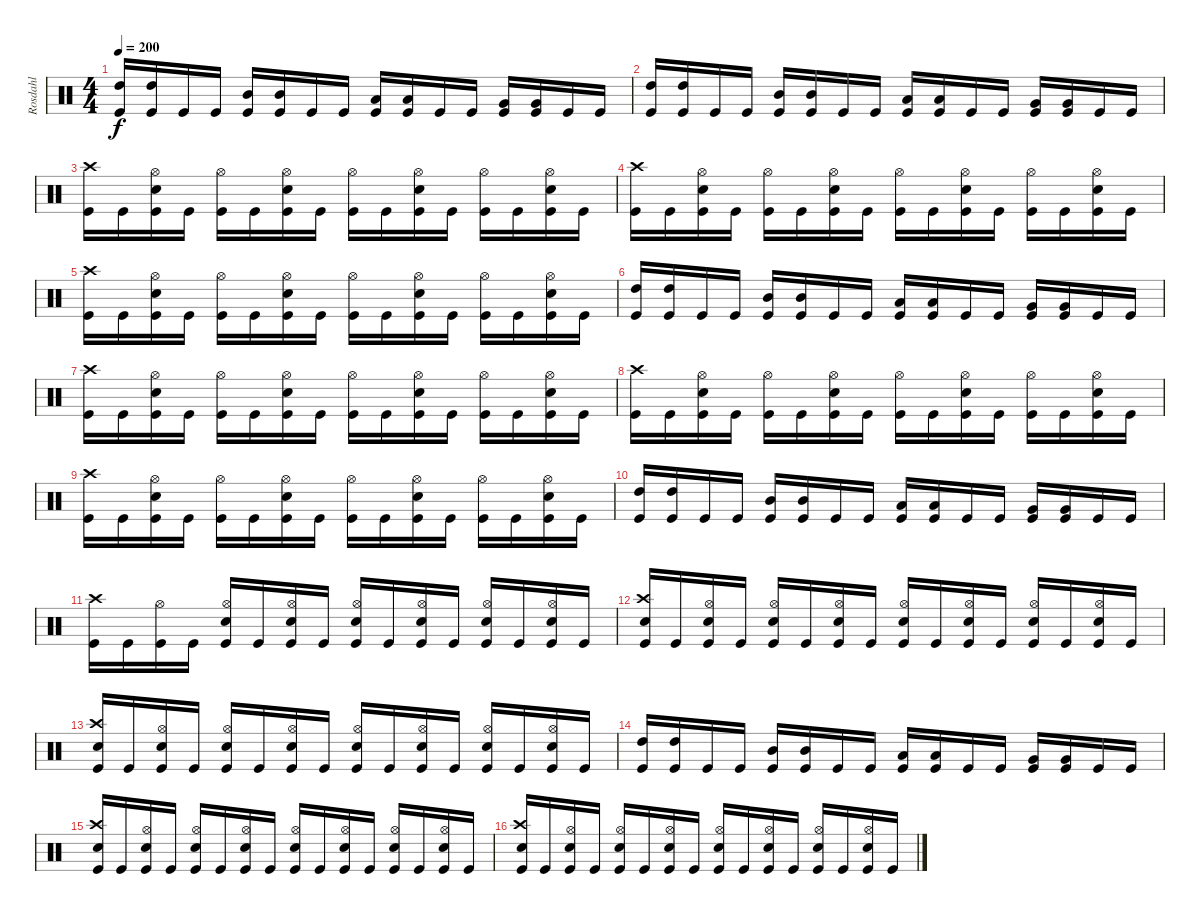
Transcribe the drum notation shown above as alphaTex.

\track ("Rosdahl" "Rosdahl") {instrument percussion}
\staff {score}
\articulation defaults
\ts (4 4)
\tempo 200
\clef neutral
\ks c
("High Tom (hit)" "Kick (hit)").16{dy f} ("High Tom (hit)" "Kick (hit)").16 "Kick (hit)".16 "Kick (hit)".16 ("Mid Tom (hit)" "Kick (hit)").16 ("Mid Tom (hit)" "Kick (hit)").16 "Kick (hit)".16 "Kick (hit)".16 ("Low Tom (hit)" "Kick (hit)").16 ("Low Tom (hit)" "Kick (hit)").16 "Kick (hit)".16 "Kick (hit)".16 ("Very Low Tom (hit)" "Kick (hit)").16 ("Very Low Tom (hit)" "Kick (hit)").16 "Kick (hit)".16 "Kick (hit)".16 |
("High Tom (hit)" "Kick (hit)").16 ("High Tom (hit)" "Kick (hit)").16 "Kick (hit)".16 "Kick (hit)".16 ("Mid Tom (hit)" "Kick (hit)").16 ("Mid Tom (hit)" "Kick (hit)").16 "Kick (hit)".16 "Kick (hit)".16 ("Low Tom (hit)" "Kick (hit)").16 ("Low Tom (hit)" "Kick (hit)").16 "Kick (hit)".16 "Kick (hit)".16 ("Very Low Tom (hit)" "Kick (hit)").16 ("Very Low Tom (hit)" "Kick (hit)").16 "Kick (hit)".16 "Kick (hit)".16 |
("Crash high (hit)" "Kick (hit)").16 "Kick (hit)".16 ("Hi-Hat (open)" "Electric Snare (hit)" "Kick (hit)").16 "Kick (hit)".16 ("Hi-Hat (open)" "Kick (hit)").16 "Kick (hit)".16 ("Hi-Hat (open)" "Electric Snare (hit)" "Kick (hit)").16 "Kick (hit)".16 ("Hi-Hat (open)" "Kick (hit)").16 "Kick (hit)".16 ("Hi-Hat (open)" "Electric Snare (hit)" "Kick (hit)").16 "Kick (hit)".16 ("Hi-Hat (open)" "Kick (hit)").16 "Kick (hit)".16 ("Hi-Hat (open)" "Electric Snare (hit)" "Kick (hit)").16 "Kick (hit)".16 |
("Crash high (hit)" "Kick (hit)").16 "Kick (hit)".16 ("Hi-Hat (open)" "Electric Snare (hit)" "Kick (hit)").16 "Kick (hit)".16 ("Hi-Hat (open)" "Kick (hit)").16 "Kick (hit)".16 ("Hi-Hat (open)" "Electric Snare (hit)" "Kick (hit)").16 "Kick (hit)".16 ("Hi-Hat (open)" "Kick (hit)").16 "Kick (hit)".16 ("Hi-Hat (open)" "Electric Snare (hit)" "Kick (hit)").16 "Kick (hit)".16 ("Hi-Hat (open)" "Kick (hit)").16 "Kick (hit)".16 ("Hi-Hat (open)" "Electric Snare (hit)" "Kick (hit)").16 "Kick (hit)".16 |
("Crash high (hit)" "Kick (hit)").16 "Kick (hit)".16 ("Hi-Hat (open)" "Electric Snare (hit)" "Kick (hit)").16 "Kick (hit)".16 ("Hi-Hat (open)" "Kick (hit)").16 "Kick (hit)".16 ("Hi-Hat (open)" "Electric Snare (hit)" "Kick (hit)").16 "Kick (hit)".16 ("Hi-Hat (open)" "Kick (hit)").16 "Kick (hit)".16 ("Hi-Hat (open)" "Electric Snare (hit)" "Kick (hit)").16 "Kick (hit)".16 ("Hi-Hat (open)" "Kick (hit)").16 "Kick (hit)".16 ("Hi-Hat (open)" "Electric Snare (hit)" "Kick (hit)").16 "Kick (hit)".16 |
("High Tom (hit)" "Kick (hit)").16 ("High Tom (hit)" "Kick (hit)").16 "Kick (hit)".16 "Kick (hit)".16 ("Mid Tom (hit)" "Kick (hit)").16 ("Mid Tom (hit)" "Kick (hit)").16 "Kick (hit)".16 "Kick (hit)".16 ("Low Tom (hit)" "Kick (hit)").16 ("Low Tom (hit)" "Kick (hit)").16 "Kick (hit)".16 "Kick (hit)".16 ("Very Low Tom (hit)" "Kick (hit)").16 ("Very Low Tom (hit)" "Kick (hit)").16 "Kick (hit)".16 "Kick (hit)".16 |
("Crash high (hit)" "Kick (hit)").16 "Kick (hit)".16 ("Hi-Hat (open)" "Electric Snare (hit)" "Kick (hit)").16 "Kick (hit)".16 ("Hi-Hat (open)" "Kick (hit)").16 "Kick (hit)".16 ("Hi-Hat (open)" "Electric Snare (hit)" "Kick (hit)").16 "Kick (hit)".16 ("Hi-Hat (open)" "Kick (hit)").16 "Kick (hit)".16 ("Hi-Hat (open)" "Electric Snare (hit)" "Kick (hit)").16 "Kick (hit)".16 ("Hi-Hat (open)" "Kick (hit)").16 "Kick (hit)".16 ("Hi-Hat (open)" "Electric Snare (hit)" "Kick (hit)").16 "Kick (hit)".16 |
("Crash high (hit)" "Kick (hit)").16 "Kick (hit)".16 ("Hi-Hat (open)" "Electric Snare (hit)" "Kick (hit)").16 "Kick (hit)".16 ("Hi-Hat (open)" "Kick (hit)").16 "Kick (hit)".16 ("Hi-Hat (open)" "Electric Snare (hit)" "Kick (hit)").16 "Kick (hit)".16 ("Hi-Hat (open)" "Kick (hit)").16 "Kick (hit)".16 ("Hi-Hat (open)" "Electric Snare (hit)" "Kick (hit)").16 "Kick (hit)".16 ("Hi-Hat (open)" "Kick (hit)").16 "Kick (hit)".16 ("Hi-Hat (open)" "Electric Snare (hit)" "Kick (hit)").16 "Kick (hit)".16 |
("Crash high (hit)" "Kick (hit)").16 "Kick (hit)".16 ("Hi-Hat (open)" "Electric Snare (hit)" "Kick (hit)").16 "Kick (hit)".16 ("Hi-Hat (open)" "Kick (hit)").16 "Kick (hit)".16 ("Hi-Hat (open)" "Electric Snare (hit)" "Kick (hit)").16 "Kick (hit)".16 ("Hi-Hat (open)" "Kick (hit)").16 "Kick (hit)".16 ("Hi-Hat (open)" "Electric Snare (hit)" "Kick (hit)").16 "Kick (hit)".16 ("Hi-Hat (open)" "Kick (hit)").16 "Kick (hit)".16 ("Hi-Hat (open)" "Electric Snare (hit)" "Kick (hit)").16 "Kick (hit)".16 |
("High Tom (hit)" "Kick (hit)").16 ("High Tom (hit)" "Kick (hit)").16 "Kick (hit)".16 "Kick (hit)".16 ("Mid Tom (hit)" "Kick (hit)").16 ("Mid Tom (hit)" "Kick (hit)").16 "Kick (hit)".16 "Kick (hit)".16 ("Low Tom (hit)" "Kick (hit)").16 ("Low Tom (hit)" "Kick (hit)").16 "Kick (hit)".16 "Kick (hit)".16 ("Very Low Tom (hit)" "Kick (hit)").16 ("Very Low Tom (hit)" "Kick (hit)").16 "Kick (hit)".16 "Kick (hit)".16 |
("Crash high (hit)" "Kick (hit)").16 "Kick (hit)".16 ("Hi-Hat (open)" "Kick (hit)").16 "Kick (hit)".16 ("Hi-Hat (open)" "Electric Snare (hit)" "Kick (hit)").16 "Kick (hit)".16 ("Hi-Hat (open)" "Electric Snare (hit)" "Kick (hit)").16 "Kick (hit)".16 ("Hi-Hat (open)" "Electric Snare (hit)" "Kick (hit)").16 "Kick (hit)".16 ("Hi-Hat (open)" "Electric Snare (hit)" "Kick (hit)").16 "Kick (hit)".16 ("Hi-Hat (open)" "Electric Snare (hit)" "Kick (hit)").16 "Kick (hit)".16 ("Hi-Hat (open)" "Electric Snare (hit)" "Kick (hit)").16 "Kick (hit)".16 |
("Crash high (hit)" "Electric Snare (hit)" "Kick (hit)").16 "Kick (hit)".16 ("Hi-Hat (open)" "Electric Snare (hit)" "Kick (hit)").16 "Kick (hit)".16 ("Hi-Hat (open)" "Electric Snare (hit)" "Kick (hit)").16 "Kick (hit)".16 ("Hi-Hat (open)" "Electric Snare (hit)" "Kick (hit)").16 "Kick (hit)".16 ("Hi-Hat (open)" "Electric Snare (hit)" "Kick (hit)").16 "Kick (hit)".16 ("Hi-Hat (open)" "Electric Snare (hit)" "Kick (hit)").16 "Kick (hit)".16 ("Hi-Hat (open)" "Electric Snare (hit)" "Kick (hit)").16 "Kick (hit)".16 ("Hi-Hat (open)" "Electric Snare (hit)" "Kick (hit)").16 "Kick (hit)".16 |
("Crash high (hit)" "Electric Snare (hit)" "Kick (hit)").16 "Kick (hit)".16 ("Hi-Hat (open)" "Electric Snare (hit)" "Kick (hit)").16 "Kick (hit)".16 ("Hi-Hat (open)" "Electric Snare (hit)" "Kick (hit)").16 "Kick (hit)".16 ("Hi-Hat (open)" "Electric Snare (hit)" "Kick (hit)").16 "Kick (hit)".16 ("Hi-Hat (open)" "Electric Snare (hit)" "Kick (hit)").16 "Kick (hit)".16 ("Hi-Hat (open)" "Electric Snare (hit)" "Kick (hit)").16 "Kick (hit)".16 ("Hi-Hat (open)" "Electric Snare (hit)" "Kick (hit)").16 "Kick (hit)".16 ("Hi-Hat (open)" "Electric Snare (hit)" "Kick (hit)").16 "Kick (hit)".16 |
("High Tom (hit)" "Kick (hit)").16 ("High Tom (hit)" "Kick (hit)").16 "Kick (hit)".16 "Kick (hit)".16 ("Mid Tom (hit)" "Kick (hit)").16 ("Mid Tom (hit)" "Kick (hit)").16 "Kick (hit)".16 "Kick (hit)".16 ("Low Tom (hit)" "Kick (hit)").16 ("Low Tom (hit)" "Kick (hit)").16 "Kick (hit)".16 "Kick (hit)".16 ("Very Low Tom (hit)" "Kick (hit)").16 ("Very Low Tom (hit)" "Kick (hit)").16 "Kick (hit)".16 "Kick (hit)".16 |
("Crash high (hit)" "Electric Snare (hit)" "Kick (hit)").16 "Kick (hit)".16 ("Hi-Hat (open)" "Electric Snare (hit)" "Kick (hit)").16 "Kick (hit)".16 ("Hi-Hat (open)" "Electric Snare (hit)" "Kick (hit)").16 "Kick (hit)".16 ("Hi-Hat (open)" "Electric Snare (hit)" "Kick (hit)").16 "Kick (hit)".16 ("Hi-Hat (open)" "Electric Snare (hit)" "Kick (hit)").16 "Kick (hit)".16 ("Hi-Hat (open)" "Electric Snare (hit)" "Kick (hit)").16 "Kick (hit)".16 ("Hi-Hat (open)" "Electric Snare (hit)" "Kick (hit)").16 "Kick (hit)".16 ("Hi-Hat (open)" "Electric Snare (hit)" "Kick (hit)").16 "Kick (hit)".16 |
("Crash high (hit)" "Electric Snare (hit)" "Kick (hit)").16 "Kick (hit)".16 ("Hi-Hat (open)" "Electric Snare (hit)" "Kick (hit)").16 "Kick (hit)".16 ("Hi-Hat (open)" "Electric Snare (hit)" "Kick (hit)").16 "Kick (hit)".16 ("Hi-Hat (open)" "Electric Snare (hit)" "Kick (hit)").16 "Kick (hit)".16 ("Hi-Hat (open)" "Electric Snare (hit)" "Kick (hit)").16 "Kick (hit)".16 ("Hi-Hat (open)" "Electric Snare (hit)" "Kick (hit)").16 "Kick (hit)".16 ("Hi-Hat (open)" "Electric Snare (hit)" "Kick (hit)").16 "Kick (hit)".16 ("Hi-Hat (open)" "Electric Snare (hit)" "Kick (hit)").16 "Kick (hit)".16
